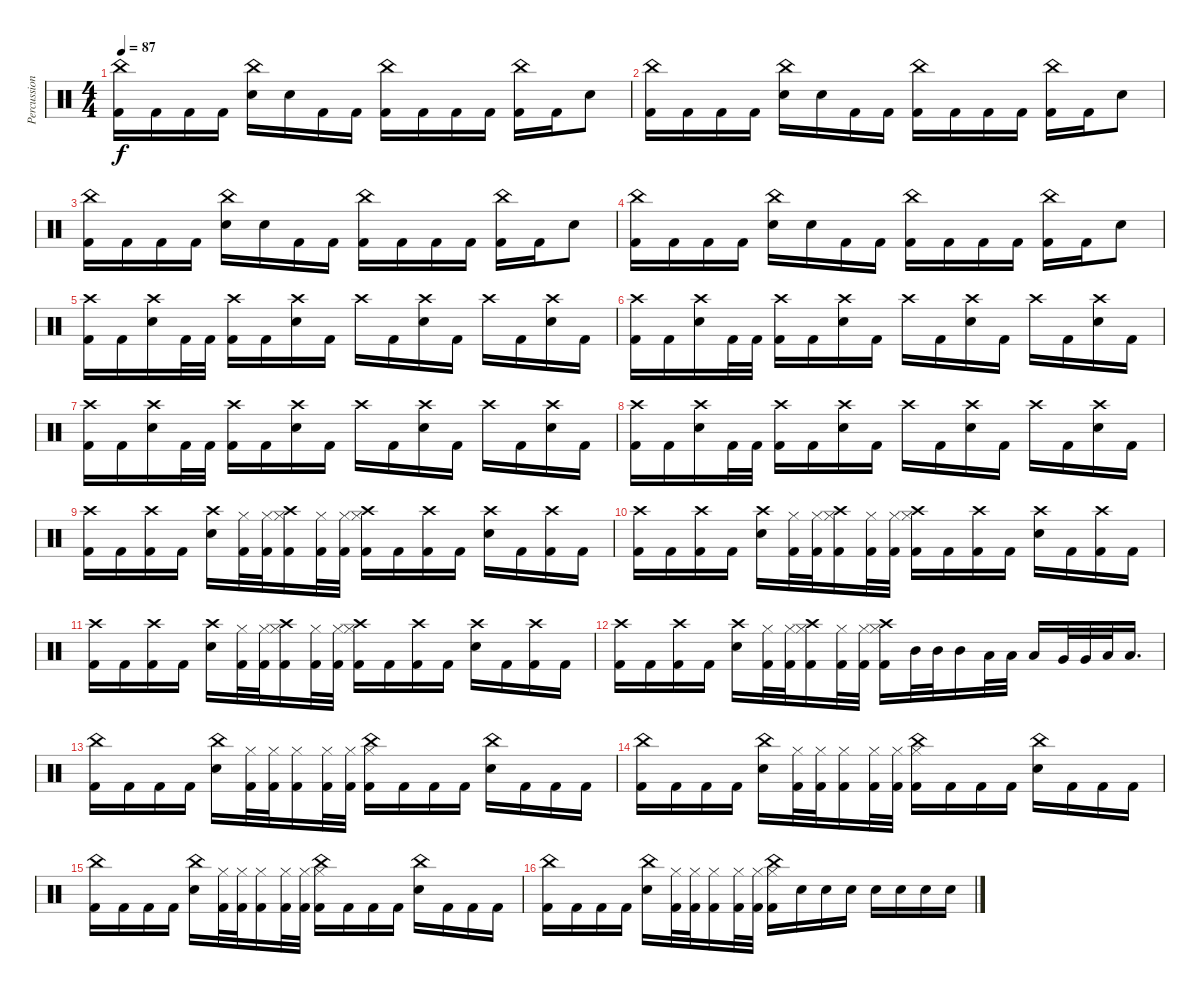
\track ("Percussion" "Percussion") {instrument percussion}
\staff {score}
\articulation defaults
\ts (4 4)
\tempo 87
\clef neutral
\ks c
("China (hit)" "Kick (hit) 2").16{dy f} "Kick (hit) 2".16 "Kick (hit) 2".16 "Kick (hit) 2".16 ("China (hit)" "Electric Snare (hit)").16 "Electric Snare (hit)".16 "Kick (hit) 2".16 "Kick (hit) 2".16 ("China (hit)" "Kick (hit) 2").16 "Kick (hit) 2".16 "Kick (hit) 2".16 "Kick (hit) 2".16 ("China (hit)" "Kick (hit) 2").16 "Kick (hit) 2".16 "Electric Snare (hit)".8 |
("China (hit)" "Kick (hit) 2").16 "Kick (hit) 2".16 "Kick (hit) 2".16 "Kick (hit) 2".16 ("China (hit)" "Electric Snare (hit)").16 "Electric Snare (hit)".16 "Kick (hit) 2".16 "Kick (hit) 2".16 ("China (hit)" "Kick (hit) 2").16 "Kick (hit) 2".16 "Kick (hit) 2".16 "Kick (hit) 2".16 ("China (hit)" "Kick (hit) 2").16 "Kick (hit) 2".16 "Electric Snare (hit)".8 |
("China (hit)" "Kick (hit) 2").16 "Kick (hit) 2".16 "Kick (hit) 2".16 "Kick (hit) 2".16 ("China (hit)" "Electric Snare (hit)").16 "Electric Snare (hit)".16 "Kick (hit) 2".16 "Kick (hit) 2".16 ("China (hit)" "Kick (hit) 2").16 "Kick (hit) 2".16 "Kick (hit) 2".16 "Kick (hit) 2".16 ("China (hit)" "Kick (hit) 2").16 "Kick (hit) 2".16 "Electric Snare (hit)".8 |
("China (hit)" "Kick (hit) 2").16 "Kick (hit) 2".16 "Kick (hit) 2".16 "Kick (hit) 2".16 ("China (hit)" "Electric Snare (hit)").16 "Electric Snare (hit)".16 "Kick (hit) 2".16 "Kick (hit) 2".16 ("China (hit)" "Kick (hit) 2").16 "Kick (hit) 2".16 "Kick (hit) 2".16 "Kick (hit) 2".16 ("China (hit)" "Kick (hit) 2").16 "Kick (hit) 2".16 "Electric Snare (hit)".8 |
("Crash high (hit)" "Kick (hit) 2").16 "Kick (hit) 2".16 ("Crash high (hit)" "Electric Snare (hit)").16 "Kick (hit) 2".32 "Kick (hit) 2".32 ("Crash high (hit)" "Kick (hit) 2").16 "Kick (hit) 2".16 ("Crash high (hit)" "Electric Snare (hit)").16 "Kick (hit) 2".16 "Crash high (hit)".16 "Kick (hit) 2".16 ("Crash high (hit)" "Electric Snare (hit)").16 "Kick (hit) 2".16 "Crash high (hit)".16 "Kick (hit) 2".16 ("Crash high (hit)" "Electric Snare (hit)").16 "Kick (hit) 2".16 |
("Crash high (hit)" "Kick (hit) 2").16 "Kick (hit) 2".16 ("Crash high (hit)" "Electric Snare (hit)").16 "Kick (hit) 2".32 "Kick (hit) 2".32 ("Crash high (hit)" "Kick (hit) 2").16 "Kick (hit) 2".16 ("Crash high (hit)" "Electric Snare (hit)").16 "Kick (hit) 2".16 "Crash high (hit)".16 "Kick (hit) 2".16 ("Crash high (hit)" "Electric Snare (hit)").16 "Kick (hit) 2".16 "Crash high (hit)".16 "Kick (hit) 2".16 ("Crash high (hit)" "Electric Snare (hit)").16 "Kick (hit) 2".16 |
("Crash high (hit)" "Kick (hit) 2").16 "Kick (hit) 2".16 ("Crash high (hit)" "Electric Snare (hit)").16 "Kick (hit) 2".32 "Kick (hit) 2".32 ("Crash high (hit)" "Kick (hit) 2").16 "Kick (hit) 2".16 ("Crash high (hit)" "Electric Snare (hit)").16 "Kick (hit) 2".16 "Crash high (hit)".16 "Kick (hit) 2".16 ("Crash high (hit)" "Electric Snare (hit)").16 "Kick (hit) 2".16 "Crash high (hit)".16 "Kick (hit) 2".16 ("Crash high (hit)" "Electric Snare (hit)").16 "Kick (hit) 2".16 |
("Crash high (hit)" "Kick (hit) 2").16 "Kick (hit) 2".16 ("Crash high (hit)" "Electric Snare (hit)").16 "Kick (hit) 2".32 "Kick (hit) 2".32 ("Crash high (hit)" "Kick (hit) 2").16 "Kick (hit) 2".16 ("Crash high (hit)" "Electric Snare (hit)").16 "Kick (hit) 2".16 "Crash high (hit)".16 "Kick (hit) 2".16 ("Crash high (hit)" "Electric Snare (hit)").16 "Kick (hit) 2".16 "Crash high (hit)".16 "Kick (hit) 2".16 ("Crash high (hit)" "Electric Snare (hit)").16 "Kick (hit) 2".16 |
("Crash high (hit)" "Kick (hit) 2").16 "Kick (hit) 2".16 ("Crash high (hit)" "Kick (hit) 2").16 "Kick (hit) 2".16 ("Crash high (hit)" "Electric Snare (hit)").16 ("Hi-Hat (closed)" "Kick (hit) 2").32 ("Hi-Hat (closed)" "Kick (hit) 2").32 ("Crash high (hit)" "Hi-Hat (closed)" "Kick (hit) 2").16 ("Hi-Hat (closed)" "Kick (hit) 2").32 ("Hi-Hat (closed)" "Kick (hit) 2").32 ("Crash high (hit)" "Hi-Hat (closed)" "Kick (hit) 2").16 "Kick (hit) 2".16 ("Crash high (hit)" "Kick (hit) 2").16 "Kick (hit) 2".16 ("Crash high (hit)" "Electric Snare (hit)").16 "Kick (hit) 2".16 ("Crash high (hit)" "Kick (hit) 2").16 "Kick (hit) 2".16 |
("Crash high (hit)" "Kick (hit) 2").16 "Kick (hit) 2".16 ("Crash high (hit)" "Kick (hit) 2").16 "Kick (hit) 2".16 ("Crash high (hit)" "Electric Snare (hit)").16 ("Hi-Hat (closed)" "Kick (hit) 2").32 ("Hi-Hat (closed)" "Kick (hit) 2").32 ("Crash high (hit)" "Hi-Hat (closed)" "Kick (hit) 2").16 ("Hi-Hat (closed)" "Kick (hit) 2").32 ("Hi-Hat (closed)" "Kick (hit) 2").32 ("Crash high (hit)" "Hi-Hat (closed)" "Kick (hit) 2").16 "Kick (hit) 2".16 ("Crash high (hit)" "Kick (hit) 2").16 "Kick (hit) 2".16 ("Crash high (hit)" "Electric Snare (hit)").16 "Kick (hit) 2".16 ("Crash high (hit)" "Kick (hit) 2").16 "Kick (hit) 2".16 |
("Crash high (hit)" "Kick (hit) 2").16 "Kick (hit) 2".16 ("Crash high (hit)" "Kick (hit) 2").16 "Kick (hit) 2".16 ("Crash high (hit)" "Electric Snare (hit)").16 ("Hi-Hat (closed)" "Kick (hit) 2").32 ("Hi-Hat (closed)" "Kick (hit) 2").32 ("Crash high (hit)" "Hi-Hat (closed)" "Kick (hit) 2").16 ("Hi-Hat (closed)" "Kick (hit) 2").32 ("Hi-Hat (closed)" "Kick (hit) 2").32 ("Crash high (hit)" "Hi-Hat (closed)" "Kick (hit) 2").16 "Kick (hit) 2".16 ("Crash high (hit)" "Kick (hit) 2").16 "Kick (hit) 2".16 ("Crash high (hit)" "Electric Snare (hit)").16 "Kick (hit) 2".16 ("Crash high (hit)" "Kick (hit) 2").16 "Kick (hit) 2".16 |
("Crash high (hit)" "Kick (hit) 2").16 "Kick (hit) 2".16 ("Crash high (hit)" "Kick (hit) 2").16 "Kick (hit) 2".16 ("Crash high (hit)" "Electric Snare (hit)").16 ("Hi-Hat (closed)" "Kick (hit) 2").32 ("Hi-Hat (closed)" "Kick (hit) 2").32 ("Crash high (hit)" "Hi-Hat (closed)" "Kick (hit) 2").16 ("Hi-Hat (closed)" "Kick (hit) 2").32 ("Hi-Hat (closed)" "Kick (hit) 2").32 ("Crash high (hit)" "Hi-Hat (closed)" "Kick (hit) 2").16 "Mid Tom (hit)".32 "Mid Tom (hit)".32 "Mid Tom (hit)".16 "Low Tom (hit)".32 "Low Tom (hit)".32 "Low Tom (hit)".16 "Very Low Tom (hit)".32 "Very Low Tom (hit)".32 "Low Floor Tom (hit)".32 "Low Floor Tom (hit)".16{d} |
("China (hit)" "Kick (hit) 2").16 "Kick (hit) 2".16 "Kick (hit) 2".16 "Kick (hit) 2".16 ("China (hit)" "Electric Snare (hit)").16 ("Hi-Hat (closed)" "Kick (hit) 2").32 ("Hi-Hat (closed)" "Kick (hit) 2").32 ("Hi-Hat (closed)" "Kick (hit) 2").16 ("Hi-Hat (closed)" "Kick (hit) 2").32 ("Hi-Hat (closed)" "Kick (hit) 2").32 ("Hi-Hat (closed)" "China (hit)" "Kick (hit) 2").16 "Kick (hit) 2".16 "Kick (hit) 2".16 "Kick (hit) 2".16 ("China (hit)" "Electric Snare (hit)").16 "Kick (hit) 2".16 "Kick (hit) 2".16 "Kick (hit) 2".16 |
("China (hit)" "Kick (hit) 2").16 "Kick (hit) 2".16 "Kick (hit) 2".16 "Kick (hit) 2".16 ("China (hit)" "Electric Snare (hit)").16 ("Hi-Hat (closed)" "Kick (hit) 2").32 ("Hi-Hat (closed)" "Kick (hit) 2").32 ("Hi-Hat (closed)" "Kick (hit) 2").16 ("Hi-Hat (closed)" "Kick (hit) 2").32 ("Hi-Hat (closed)" "Kick (hit) 2").32 ("Hi-Hat (closed)" "China (hit)" "Kick (hit) 2").16 "Kick (hit) 2".16 "Kick (hit) 2".16 "Kick (hit) 2".16 ("China (hit)" "Electric Snare (hit)").16 "Kick (hit) 2".16 "Kick (hit) 2".16 "Kick (hit) 2".16 |
("China (hit)" "Kick (hit) 2").16 "Kick (hit) 2".16 "Kick (hit) 2".16 "Kick (hit) 2".16 ("China (hit)" "Electric Snare (hit)").16 ("Hi-Hat (closed)" "Kick (hit) 2").32 ("Hi-Hat (closed)" "Kick (hit) 2").32 ("Hi-Hat (closed)" "Kick (hit) 2").16 ("Hi-Hat (closed)" "Kick (hit) 2").32 ("Hi-Hat (closed)" "Kick (hit) 2").32 ("Hi-Hat (closed)" "China (hit)" "Kick (hit) 2").16 "Kick (hit) 2".16 "Kick (hit) 2".16 "Kick (hit) 2".16 ("China (hit)" "Electric Snare (hit)").16 "Kick (hit) 2".16 "Kick (hit) 2".16 "Kick (hit) 2".16 |
("China (hit)" "Kick (hit) 2").16 "Kick (hit) 2".16 "Kick (hit) 2".16 "Kick (hit) 2".16 ("China (hit)" "Electric Snare (hit)").16 ("Hi-Hat (closed)" "Kick (hit) 2").32 ("Hi-Hat (closed)" "Kick (hit) 2").32 ("Hi-Hat (closed)" "Kick (hit) 2").16 ("Hi-Hat (closed)" "Kick (hit) 2").32 ("Hi-Hat (closed)" "Kick (hit) 2").32 ("Hi-Hat (closed)" "China (hit)" "Kick (hit) 2").16 "Electric Snare (hit)".16 "Electric Snare (hit)".16 "Electric Snare (hit)".16 "Electric Snare (hit)".16 "Electric Snare (hit)".16 "Electric Snare (hit)".16 "Electric Snare (hit)".16
